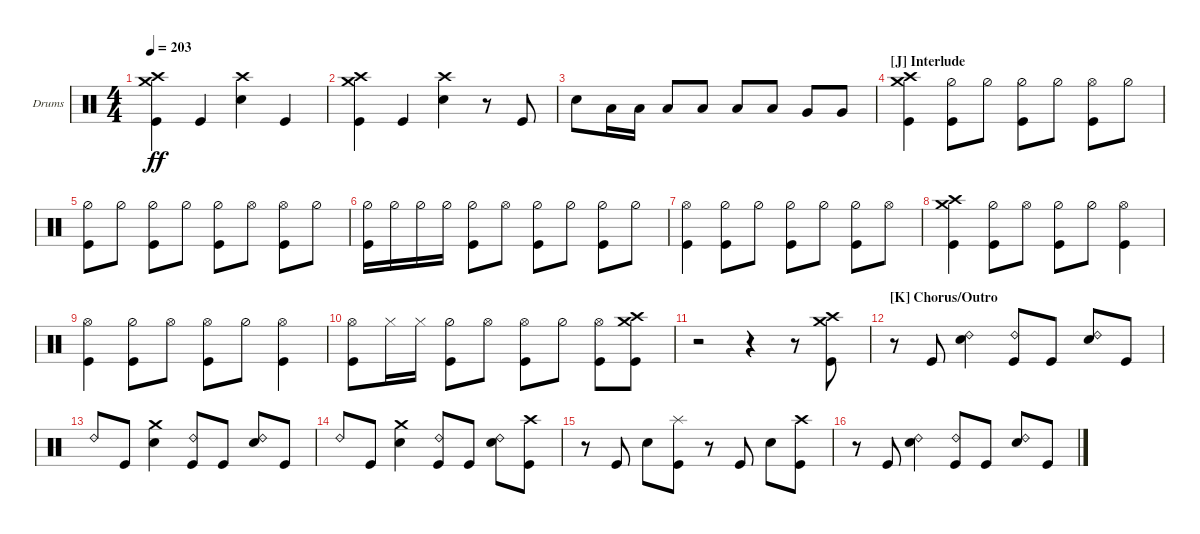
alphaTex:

\defaultSystemsLayout 4
\bracketExtendMode groupsimilarinstruments
\firstSystemTrackNameOrientation horizontal
\otherSystemsTrackNameOrientation horizontal
\track ("Brandon Barnes - Drums" "Drums") {instrument percussion}
\staff {score}
\articulation defaults
\ts (4 4)
\tempo 203
\clef neutral
\ks c
("Kick (hit)" "Crash high (hit)" "Crash medium (hit)").4{dy ff} "Kick (hit)".4 ("Snare (hit) 2" "Crash high (hit)").4 "Kick (hit)".4 |
("Kick (hit)" "Crash high (hit)" "Crash medium (hit)").4 "Kick (hit)".4 ("Snare (hit) 2" "Crash high (hit)").4 r.8 "Kick (hit)".8 |
"Snare (hit) 2".8 "Low Tom (hit)".16 "Low Tom (hit)".16 "Low Tom (hit)".8 "Low Tom (hit)".8 "Low Tom (hit)".8 "Low Tom (hit)".8 "Very Low Tom (hit)".8 "Very Low Tom (hit)".8 |
\section ("J" "Interlude")
("Kick (hit)" "Crash high (hit)" "Crash medium (hit)").4 ("Hi-Hat (half)" "Kick (hit)").8 "Hi-Hat (half)".8 ("Hi-Hat (half)" "Kick (hit)").8 "Hi-Hat (half)".8 ("Hi-Hat (open)" "Kick (hit)").8 "Hi-Hat (half)".8 |
("Hi-Hat (half)" "Kick (hit)").8 "Hi-Hat (half)".8 ("Hi-Hat (half)" "Kick (hit)").8 "Hi-Hat (half)".8 ("Hi-Hat (half)" "Kick (hit)").8 "Hi-Hat (open)".8 ("Hi-Hat (open)" "Kick (hit)").8 "Hi-Hat (half)".8 |
("Hi-Hat (half)" "Kick (hit)").16 "Hi-Hat (half)".16 "Hi-Hat (half)".16 "Hi-Hat (half)".16 ("Hi-Hat (half)" "Kick (hit)").8 "Hi-Hat (open)".8 ("Hi-Hat (half)" "Kick (hit)").8 "Hi-Hat (half)".8 ("Hi-Hat (half)" "Kick (hit)").8 "Hi-Hat (half)".8 |
("Hi-Hat (open)" "Kick (hit)").4 ("Hi-Hat (half)" "Kick (hit)").8 "Hi-Hat (half)".8 ("Hi-Hat (half)" "Kick (hit)").8 "Hi-Hat (half)".8 ("Hi-Hat (half)" "Kick (hit)").8 "Hi-Hat (open)".8 |
("Kick (hit)" "Crash high (hit)" "Crash medium (hit)").4 ("Hi-Hat (half)" "Kick (hit)").8 "Hi-Hat (open)".8 ("Hi-Hat (half)" "Kick (hit)").8 "Hi-Hat (half)".8 ("Hi-Hat (open)" "Kick (hit)").4 |
("Hi-Hat (open)" "Kick (hit)").4 ("Hi-Hat (half)" "Kick (hit)").8 "Hi-Hat (open)".8 ("Hi-Hat (open)" "Kick (hit)").8 "Hi-Hat (half)".8 ("Hi-Hat (open)" "Kick (hit)").4 |
("Hi-Hat (open)" "Kick (hit)").8 "Hi-Hat (closed)".16 "Hi-Hat (closed)".16 ("Hi-Hat (half)" "Kick (hit)").8 "Hi-Hat (open)".8 ("Hi-Hat (open)" "Kick (hit)").8 "Hi-Hat (half)".8 ("Hi-Hat (open)" "Kick (hit)").8 ("Crash medium (hit)" "Kick (hit)" "Crash high (hit)").8 |
r.2 r.4 r.8 ("Crash medium (hit)" "Kick (hit)" "Crash high (hit)").8 |
\section ("K" "Chorus/Outro")
r.8 "Kick (hit)".8 ("Snare (hit) 2" "Ride (bell) 2").4 ("Ride (bell) 2" "Kick (hit)").8 "Kick (hit)".8 ("Snare (hit) 2" "Ride (bell) 2").8 "Kick (hit)".8 |
"Ride (bell) 2".8 "Kick (hit)".8 ("Snare (hit) 2" "Crash medium (hit)").4 ("Ride (bell) 2" "Kick (hit)").8 "Kick (hit)".8 ("Snare (hit) 2" "Ride (bell) 2").8 "Kick (hit)".8 |
"Ride (bell) 2".8 "Kick (hit)".8 ("Snare (hit) 2" "Crash medium (hit)").4 ("Ride (bell) 2" "Kick (hit)").8 "Kick (hit)".8 ("Snare (hit) 2" "Ride (bell) 2").8 ("Kick (hit)" "Crash high (hit)").8 |
r.8 "Kick (hit)".8 "Snare (hit) 2".8 ("Kick (hit)" "Splash (hit)").8 r.8 "Kick (hit)".8 "Snare (hit) 2".8 ("Kick (hit)" "Crash high (hit)").8 |
r.8 "Kick (hit)".8 ("Snare (hit) 2" "Ride (bell) 2").4 ("Ride (bell) 2" "Kick (hit)").8 "Kick (hit)".8 ("Snare (hit) 2" "Ride (bell) 2").8 "Kick (hit)".8
